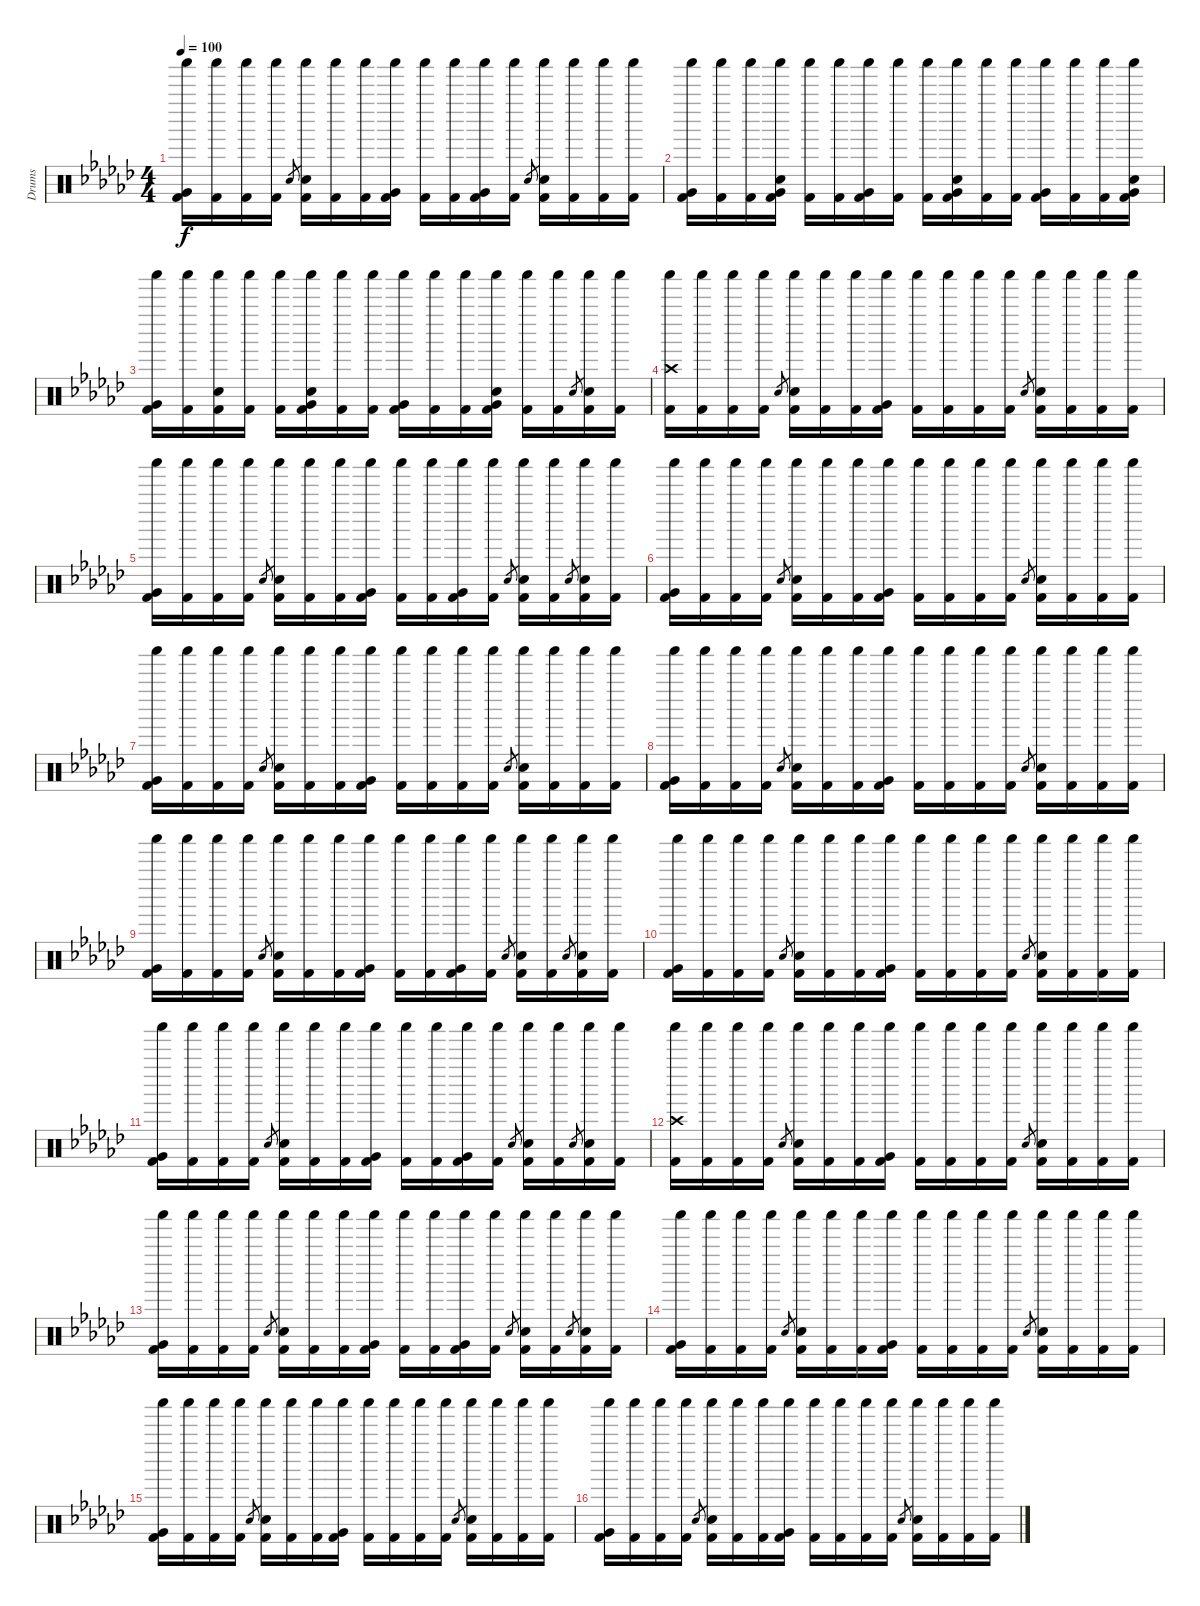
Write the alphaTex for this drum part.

\track ("Drums" "Drums") {instrument percussion}
\staff {score}
\articulation defaults
\ts (4 4)
\tempo 100
\clef neutral
\ks gb
("Shaker (hit)" "Very Low Tom (hit)" "Kick (hit) 2").16{dy f} ("Shaker (hit)" "Kick (hit) 2").16 ("Shaker (hit)" "Kick (hit) 2").16 ("Shaker (hit)" "Kick (hit) 2").16 "Electric Snare (hit)".8{gr} ("Shaker (hit)" "Electric Snare (hit)" "Kick (hit) 2").16 ("Shaker (hit)" "Kick (hit) 2").16 ("Shaker (hit)" "Kick (hit) 2").16 ("Shaker (hit)" "Very Low Tom (hit)" "Kick (hit) 2").16 ("Shaker (hit)" "Kick (hit) 2").16 ("Shaker (hit)" "Kick (hit) 2").16 ("Shaker (hit)" "Very Low Tom (hit)" "Kick (hit) 2").16 ("Shaker (hit)" "Kick (hit) 2").16 "Electric Snare (hit)".8{gr} ("Shaker (hit)" "Electric Snare (hit)" "Kick (hit) 2").16 ("Shaker (hit)" "Kick (hit) 2").16 ("Shaker (hit)" "Kick (hit) 2").16 ("Shaker (hit)" "Kick (hit) 2").16 |
("Shaker (hit)" "Very Low Tom (hit)" "Kick (hit) 2").16 ("Shaker (hit)" "Kick (hit) 2").16 ("Shaker (hit)" "Kick (hit) 2").16 ("Shaker (hit)" "Electric Snare (hit)" "Very Low Tom (hit)" "Kick (hit) 2").16 ("Shaker (hit)" "Kick (hit) 2").16 ("Shaker (hit)" "Kick (hit) 2").16 ("Shaker (hit)" "Very Low Tom (hit)" "Kick (hit) 2").16 ("Shaker (hit)" "Kick (hit) 2").16 ("Shaker (hit)" "Kick (hit) 2").16 ("Shaker (hit)" "Electric Snare (hit)" "Very Low Tom (hit)" "Kick (hit) 2").16 ("Shaker (hit)" "Kick (hit) 2").16 ("Shaker (hit)" "Kick (hit) 2").16 ("Shaker (hit)" "Very Low Tom (hit)" "Kick (hit) 2").16 ("Shaker (hit)" "Kick (hit) 2").16 ("Shaker (hit)" "Kick (hit) 2").16 ("Shaker (hit)" "Electric Snare (hit)" "Very Low Tom (hit)" "Kick (hit) 2").16 |
("Shaker (hit)" "Very Low Tom (hit)" "Kick (hit) 2").16 ("Shaker (hit)" "Kick (hit) 2").16 ("Shaker (hit)" "Electric Snare (hit)" "Kick (hit) 2").16 ("Shaker (hit)" "Kick (hit) 2").16 ("Shaker (hit)" "Kick (hit) 2").16 ("Shaker (hit)" "Electric Snare (hit)" "Very Low Tom (hit)" "Kick (hit) 2").16 ("Shaker (hit)" "Kick (hit) 2").16 ("Shaker (hit)" "Kick (hit) 2").16 ("Shaker (hit)" "Very Low Tom (hit)" "Kick (hit) 2").16 ("Shaker (hit)" "Kick (hit) 2").16 ("Shaker (hit)" "Kick (hit) 2").16 ("Shaker (hit)" "Electric Snare (hit)" "Very Low Tom (hit)" "Kick (hit) 2").16 ("Shaker (hit)" "Kick (hit) 2").16 ("Shaker (hit)" "Kick (hit) 2").16 "Electric Snare (hit)".8{gr} ("Shaker (hit)" "Electric Snare (hit)" "Kick (hit) 2").16 ("Shaker (hit)" "Kick (hit) 2").16 |
("Crash high (hit)" "Shaker (hit)" "Kick (hit) 2").16 ("Shaker (hit)" "Kick (hit) 2").16 ("Shaker (hit)" "Kick (hit) 2").16 ("Shaker (hit)" "Kick (hit) 2").16 "Electric Snare (hit)".8{gr} ("Shaker (hit)" "Electric Snare (hit)" "Kick (hit) 2").16 ("Shaker (hit)" "Kick (hit) 2").16 ("Shaker (hit)" "Kick (hit) 2").16 ("Shaker (hit)" "Very Low Tom (hit)" "Kick (hit) 2").16 ("Shaker (hit)" "Kick (hit) 2").16 ("Shaker (hit)" "Kick (hit) 2").16 ("Shaker (hit)" "Kick (hit) 2").16 ("Shaker (hit)" "Kick (hit) 2").16 "Electric Snare (hit)".8{gr} ("Shaker (hit)" "Electric Snare (hit)" "Kick (hit) 2").16 ("Shaker (hit)" "Kick (hit) 2").16 ("Shaker (hit)" "Kick (hit) 2").16 ("Shaker (hit)" "Kick (hit) 2").16 |
("Shaker (hit)" "Very Low Tom (hit)" "Kick (hit) 2").16 ("Shaker (hit)" "Kick (hit) 2").16 ("Shaker (hit)" "Kick (hit) 2").16 ("Shaker (hit)" "Kick (hit) 2").16 "Electric Snare (hit)".8{gr} ("Shaker (hit)" "Electric Snare (hit)" "Kick (hit) 2").16 ("Shaker (hit)" "Kick (hit) 2").16 ("Shaker (hit)" "Kick (hit) 2").16 ("Shaker (hit)" "Very Low Tom (hit)" "Kick (hit) 2").16 ("Shaker (hit)" "Kick (hit) 2").16 ("Shaker (hit)" "Kick (hit) 2").16 ("Shaker (hit)" "Very Low Tom (hit)" "Kick (hit) 2").16 ("Shaker (hit)" "Kick (hit) 2").16 "Electric Snare (hit)".8{gr} ("Shaker (hit)" "Electric Snare (hit)" "Kick (hit) 2").16 ("Shaker (hit)" "Kick (hit) 2").16 "Electric Snare (hit)".8{gr} ("Shaker (hit)" "Electric Snare (hit)" "Kick (hit) 2").16 ("Shaker (hit)" "Kick (hit) 2").16 |
("Shaker (hit)" "Very Low Tom (hit)" "Kick (hit) 2").16 ("Shaker (hit)" "Kick (hit) 2").16 ("Shaker (hit)" "Kick (hit) 2").16 ("Shaker (hit)" "Kick (hit) 2").16 "Electric Snare (hit)".8{gr} ("Shaker (hit)" "Electric Snare (hit)" "Kick (hit) 2").16 ("Shaker (hit)" "Kick (hit) 2").16 ("Shaker (hit)" "Kick (hit) 2").16 ("Shaker (hit)" "Very Low Tom (hit)" "Kick (hit) 2").16 ("Shaker (hit)" "Kick (hit) 2").16 ("Shaker (hit)" "Kick (hit) 2").16 ("Shaker (hit)" "Kick (hit) 2").16 ("Shaker (hit)" "Kick (hit) 2").16 "Electric Snare (hit)".8{gr} ("Shaker (hit)" "Electric Snare (hit)" "Kick (hit) 2").16 ("Shaker (hit)" "Kick (hit) 2").16 ("Shaker (hit)" "Kick (hit) 2").16 ("Shaker (hit)" "Kick (hit) 2").16 |
("Shaker (hit)" "Very Low Tom (hit)" "Kick (hit) 2").16 ("Shaker (hit)" "Kick (hit) 2").16 ("Shaker (hit)" "Kick (hit) 2").16 ("Shaker (hit)" "Kick (hit) 2").16 "Electric Snare (hit)".8{gr} ("Shaker (hit)" "Electric Snare (hit)" "Kick (hit) 2").16 ("Shaker (hit)" "Kick (hit) 2").16 ("Shaker (hit)" "Kick (hit) 2").16 ("Shaker (hit)" "Very Low Tom (hit)" "Kick (hit) 2").16 ("Shaker (hit)" "Kick (hit) 2").16 ("Shaker (hit)" "Kick (hit) 2").16 ("Shaker (hit)" "Kick (hit) 2").16 ("Shaker (hit)" "Kick (hit) 2").16 "Electric Snare (hit)".8{gr} ("Shaker (hit)" "Electric Snare (hit)" "Kick (hit) 2").16 ("Shaker (hit)" "Kick (hit) 2").16 ("Shaker (hit)" "Kick (hit) 2").16 ("Shaker (hit)" "Kick (hit) 2").16 |
("Shaker (hit)" "Very Low Tom (hit)" "Kick (hit) 2").16 ("Shaker (hit)" "Kick (hit) 2").16 ("Shaker (hit)" "Kick (hit) 2").16 ("Shaker (hit)" "Kick (hit) 2").16 "Electric Snare (hit)".8{gr} ("Shaker (hit)" "Electric Snare (hit)" "Kick (hit) 2").16 ("Shaker (hit)" "Kick (hit) 2").16 ("Shaker (hit)" "Kick (hit) 2").16 ("Shaker (hit)" "Very Low Tom (hit)" "Kick (hit) 2").16 ("Shaker (hit)" "Kick (hit) 2").16 ("Shaker (hit)" "Kick (hit) 2").16 ("Shaker (hit)" "Kick (hit) 2").16 ("Shaker (hit)" "Kick (hit) 2").16 "Electric Snare (hit)".8{gr} ("Shaker (hit)" "Electric Snare (hit)" "Kick (hit) 2").16 ("Shaker (hit)" "Kick (hit) 2").16 ("Shaker (hit)" "Kick (hit) 2").16 ("Shaker (hit)" "Kick (hit) 2").16 |
("Shaker (hit)" "Very Low Tom (hit)" "Kick (hit) 2").16 ("Shaker (hit)" "Kick (hit) 2").16 ("Shaker (hit)" "Kick (hit) 2").16 ("Shaker (hit)" "Kick (hit) 2").16 "Electric Snare (hit)".8{gr} ("Shaker (hit)" "Electric Snare (hit)" "Kick (hit) 2").16 ("Shaker (hit)" "Kick (hit) 2").16 ("Shaker (hit)" "Kick (hit) 2").16 ("Shaker (hit)" "Very Low Tom (hit)" "Kick (hit) 2").16 ("Shaker (hit)" "Kick (hit) 2").16 ("Shaker (hit)" "Kick (hit) 2").16 ("Shaker (hit)" "Very Low Tom (hit)" "Kick (hit) 2").16 ("Shaker (hit)" "Kick (hit) 2").16 "Electric Snare (hit)".8{gr} ("Shaker (hit)" "Electric Snare (hit)" "Kick (hit) 2").16 ("Shaker (hit)" "Kick (hit) 2").16 "Electric Snare (hit)".8{gr} ("Shaker (hit)" "Electric Snare (hit)" "Kick (hit) 2").16 ("Shaker (hit)" "Kick (hit) 2").16 |
("Shaker (hit)" "Very Low Tom (hit)" "Kick (hit) 2").16 ("Shaker (hit)" "Kick (hit) 2").16 ("Shaker (hit)" "Kick (hit) 2").16 ("Shaker (hit)" "Kick (hit) 2").16 "Electric Snare (hit)".8{gr} ("Shaker (hit)" "Electric Snare (hit)" "Kick (hit) 2").16 ("Shaker (hit)" "Kick (hit) 2").16 ("Shaker (hit)" "Kick (hit) 2").16 ("Shaker (hit)" "Very Low Tom (hit)" "Kick (hit) 2").16 ("Shaker (hit)" "Kick (hit) 2").16 ("Shaker (hit)" "Kick (hit) 2").16 ("Shaker (hit)" "Kick (hit) 2").16 ("Shaker (hit)" "Kick (hit) 2").16 "Electric Snare (hit)".8{gr} ("Shaker (hit)" "Electric Snare (hit)" "Kick (hit) 2").16 ("Shaker (hit)" "Kick (hit) 2").16 ("Shaker (hit)" "Kick (hit) 2").16 ("Shaker (hit)" "Kick (hit) 2").16 |
("Shaker (hit)" "Very Low Tom (hit)" "Kick (hit) 2").16 ("Shaker (hit)" "Kick (hit) 2").16 ("Shaker (hit)" "Kick (hit) 2").16 ("Shaker (hit)" "Kick (hit) 2").16 "Electric Snare (hit)".8{gr} ("Shaker (hit)" "Electric Snare (hit)" "Kick (hit) 2").16 ("Shaker (hit)" "Kick (hit) 2").16 ("Shaker (hit)" "Kick (hit) 2").16 ("Shaker (hit)" "Very Low Tom (hit)" "Kick (hit) 2").16 ("Shaker (hit)" "Kick (hit) 2").16 ("Shaker (hit)" "Kick (hit) 2").16 ("Shaker (hit)" "Very Low Tom (hit)" "Kick (hit) 2").16 ("Shaker (hit)" "Kick (hit) 2").16 "Electric Snare (hit)".8{gr} ("Shaker (hit)" "Electric Snare (hit)" "Kick (hit) 2").16 ("Shaker (hit)" "Kick (hit) 2").16 "Electric Snare (hit)".8{gr} ("Shaker (hit)" "Electric Snare (hit)" "Kick (hit) 2").16 ("Shaker (hit)" "Kick (hit) 2").16 |
("Crash high (hit)" "Shaker (hit)" "Kick (hit) 2").16 ("Shaker (hit)" "Kick (hit) 2").16 ("Shaker (hit)" "Kick (hit) 2").16 ("Shaker (hit)" "Kick (hit) 2").16 "Electric Snare (hit)".8{gr} ("Shaker (hit)" "Electric Snare (hit)" "Kick (hit) 2").16 ("Shaker (hit)" "Kick (hit) 2").16 ("Shaker (hit)" "Kick (hit) 2").16 ("Shaker (hit)" "Very Low Tom (hit)" "Kick (hit) 2").16 ("Shaker (hit)" "Kick (hit) 2").16 ("Shaker (hit)" "Kick (hit) 2").16 ("Shaker (hit)" "Kick (hit) 2").16 ("Shaker (hit)" "Kick (hit) 2").16 "Electric Snare (hit)".8{gr} ("Shaker (hit)" "Electric Snare (hit)" "Kick (hit) 2").16 ("Shaker (hit)" "Kick (hit) 2").16 ("Shaker (hit)" "Kick (hit) 2").16 ("Shaker (hit)" "Kick (hit) 2").16 |
("Shaker (hit)" "Very Low Tom (hit)" "Kick (hit) 2").16 ("Shaker (hit)" "Kick (hit) 2").16 ("Shaker (hit)" "Kick (hit) 2").16 ("Shaker (hit)" "Kick (hit) 2").16 "Electric Snare (hit)".8{gr} ("Shaker (hit)" "Electric Snare (hit)" "Kick (hit) 2").16 ("Shaker (hit)" "Kick (hit) 2").16 ("Shaker (hit)" "Kick (hit) 2").16 ("Shaker (hit)" "Very Low Tom (hit)" "Kick (hit) 2").16 ("Shaker (hit)" "Kick (hit) 2").16 ("Shaker (hit)" "Kick (hit) 2").16 ("Shaker (hit)" "Very Low Tom (hit)" "Kick (hit) 2").16 ("Shaker (hit)" "Kick (hit) 2").16 "Electric Snare (hit)".8{gr} ("Shaker (hit)" "Electric Snare (hit)" "Kick (hit) 2").16 ("Shaker (hit)" "Kick (hit) 2").16 "Electric Snare (hit)".8{gr} ("Shaker (hit)" "Electric Snare (hit)" "Kick (hit) 2").16 ("Shaker (hit)" "Kick (hit) 2").16 |
("Shaker (hit)" "Very Low Tom (hit)" "Kick (hit) 2").16 ("Shaker (hit)" "Kick (hit) 2").16 ("Shaker (hit)" "Kick (hit) 2").16 ("Shaker (hit)" "Kick (hit) 2").16 "Electric Snare (hit)".8{gr} ("Shaker (hit)" "Electric Snare (hit)" "Kick (hit) 2").16 ("Shaker (hit)" "Kick (hit) 2").16 ("Shaker (hit)" "Kick (hit) 2").16 ("Shaker (hit)" "Very Low Tom (hit)" "Kick (hit) 2").16 ("Shaker (hit)" "Kick (hit) 2").16 ("Shaker (hit)" "Kick (hit) 2").16 ("Shaker (hit)" "Kick (hit) 2").16 ("Shaker (hit)" "Kick (hit) 2").16 "Electric Snare (hit)".8{gr} ("Shaker (hit)" "Electric Snare (hit)" "Kick (hit) 2").16 ("Shaker (hit)" "Kick (hit) 2").16 ("Shaker (hit)" "Kick (hit) 2").16 ("Shaker (hit)" "Kick (hit) 2").16 |
("Shaker (hit)" "Very Low Tom (hit)" "Kick (hit) 2").16 ("Shaker (hit)" "Kick (hit) 2").16 ("Shaker (hit)" "Kick (hit) 2").16 ("Shaker (hit)" "Kick (hit) 2").16 "Electric Snare (hit)".8{gr} ("Shaker (hit)" "Electric Snare (hit)" "Kick (hit) 2").16 ("Shaker (hit)" "Kick (hit) 2").16 ("Shaker (hit)" "Kick (hit) 2").16 ("Shaker (hit)" "Very Low Tom (hit)" "Kick (hit) 2").16 ("Shaker (hit)" "Kick (hit) 2").16 ("Shaker (hit)" "Kick (hit) 2").16 ("Shaker (hit)" "Kick (hit) 2").16 ("Shaker (hit)" "Kick (hit) 2").16 "Electric Snare (hit)".8{gr} ("Shaker (hit)" "Electric Snare (hit)" "Kick (hit) 2").16 ("Shaker (hit)" "Kick (hit) 2").16 ("Shaker (hit)" "Kick (hit) 2").16 ("Shaker (hit)" "Kick (hit) 2").16 |
("Shaker (hit)" "Very Low Tom (hit)" "Kick (hit) 2").16 ("Shaker (hit)" "Kick (hit) 2").16 ("Shaker (hit)" "Kick (hit) 2").16 ("Shaker (hit)" "Kick (hit) 2").16 "Electric Snare (hit)".8{gr} ("Shaker (hit)" "Electric Snare (hit)" "Kick (hit) 2").16 ("Shaker (hit)" "Kick (hit) 2").16 ("Shaker (hit)" "Kick (hit) 2").16 ("Shaker (hit)" "Very Low Tom (hit)" "Kick (hit) 2").16 ("Shaker (hit)" "Kick (hit) 2").16 ("Shaker (hit)" "Kick (hit) 2").16 ("Shaker (hit)" "Kick (hit) 2").16 ("Shaker (hit)" "Kick (hit) 2").16 "Electric Snare (hit)".8{gr} ("Shaker (hit)" "Electric Snare (hit)" "Kick (hit) 2").16 ("Shaker (hit)" "Kick (hit) 2").16 ("Shaker (hit)" "Kick (hit) 2").16 ("Shaker (hit)" "Kick (hit) 2").16
